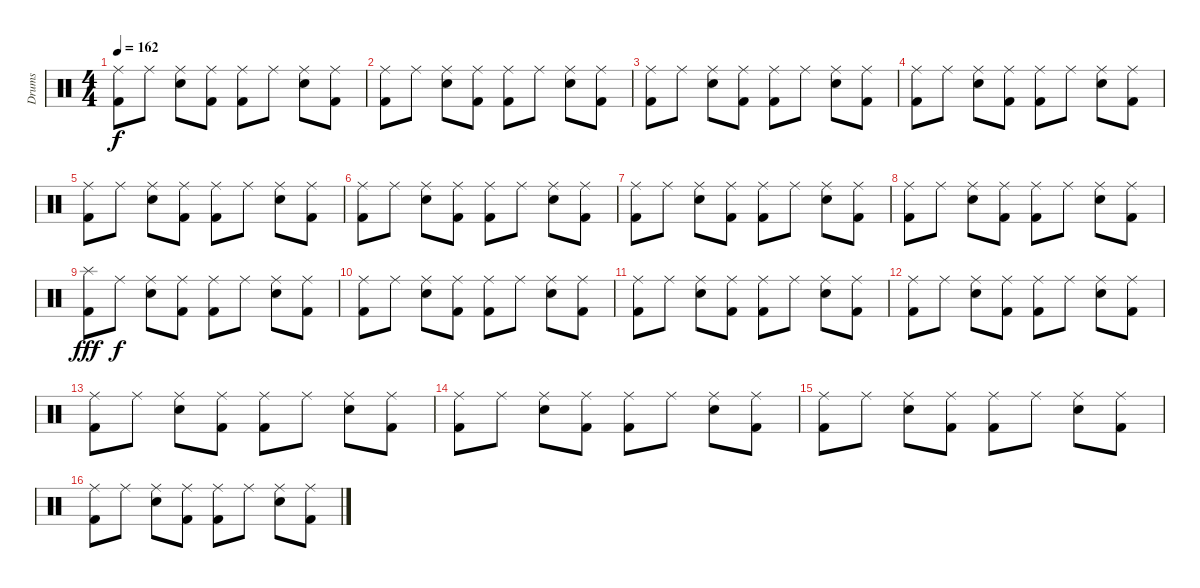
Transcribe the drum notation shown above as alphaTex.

\track ("Drums" "Drums") {instrument percussion}
\staff {score}
\articulation defaults
\ts (4 4)
\tempo 162
\clef neutral
\ks c
("Ride (middle)" "Kick (hit) 2").8{dy f} "Ride (middle)".8 ("Ride (middle)" "Electric Snare (hit)").8 ("Ride (middle)" "Kick (hit) 2").8 ("Ride (middle)" "Kick (hit) 2").8 "Ride (middle)".8 ("Ride (middle)" "Electric Snare (hit)").8 ("Ride (middle)" "Kick (hit) 2").8 |
("Ride (middle)" "Kick (hit) 2").8 "Ride (middle)".8 ("Ride (middle)" "Electric Snare (hit)").8 ("Ride (middle)" "Kick (hit) 2").8 ("Ride (middle)" "Kick (hit) 2").8 "Ride (middle)".8 ("Ride (middle)" "Electric Snare (hit)").8 ("Ride (middle)" "Kick (hit) 2").8 |
("Ride (middle)" "Kick (hit) 2").8 "Ride (middle)".8 ("Ride (middle)" "Electric Snare (hit)").8 ("Ride (middle)" "Kick (hit) 2").8 ("Ride (middle)" "Kick (hit) 2").8 "Ride (middle)".8 ("Ride (middle)" "Electric Snare (hit)").8 ("Ride (middle)" "Kick (hit) 2").8 |
("Ride (middle)" "Kick (hit) 2").8 "Ride (middle)".8 ("Ride (middle)" "Electric Snare (hit)").8 ("Ride (middle)" "Kick (hit) 2").8 ("Ride (middle)" "Kick (hit) 2").8 "Ride (middle)".8 ("Ride (middle)" "Electric Snare (hit)").8 ("Ride (middle)" "Kick (hit) 2").8 |
("Ride (middle)" "Kick (hit) 2").8 "Ride (middle)".8 ("Ride (middle)" "Electric Snare (hit)").8 ("Ride (middle)" "Kick (hit) 2").8 ("Ride (middle)" "Kick (hit) 2").8 "Ride (middle)".8 ("Ride (middle)" "Electric Snare (hit)").8 ("Ride (middle)" "Kick (hit) 2").8 |
("Ride (middle)" "Kick (hit) 2").8 "Ride (middle)".8 ("Ride (middle)" "Electric Snare (hit)").8 ("Ride (middle)" "Kick (hit) 2").8 ("Ride (middle)" "Kick (hit) 2").8 "Ride (middle)".8 ("Ride (middle)" "Electric Snare (hit)").8 ("Ride (middle)" "Kick (hit) 2").8 |
("Ride (middle)" "Kick (hit) 2").8 "Ride (middle)".8 ("Ride (middle)" "Electric Snare (hit)").8 ("Ride (middle)" "Kick (hit) 2").8 ("Ride (middle)" "Kick (hit) 2").8 "Ride (middle)".8 ("Ride (middle)" "Electric Snare (hit)").8 ("Ride (middle)" "Kick (hit) 2").8 |
("Ride (middle)" "Kick (hit) 2").8 "Ride (middle)".8 ("Ride (middle)" "Electric Snare (hit)").8 ("Ride (middle)" "Kick (hit) 2").8 ("Ride (middle)" "Kick (hit) 2").8 "Ride (middle)".8 ("Ride (middle)" "Electric Snare (hit)").8 ("Ride (middle)" "Kick (hit) 2").8 |
("Splash (hit)" "Kick (hit) 2").8{dy fff} "Ride (middle)".8{dy f} ("Ride (middle)" "Electric Snare (hit)").8 ("Ride (middle)" "Kick (hit) 2").8 ("Ride (middle)" "Kick (hit) 2").8 "Ride (middle)".8 ("Ride (middle)" "Electric Snare (hit)").8 ("Ride (middle)" "Kick (hit) 2").8 |
("Ride (middle)" "Kick (hit) 2").8 "Ride (middle)".8 ("Ride (middle)" "Electric Snare (hit)").8 ("Ride (middle)" "Kick (hit) 2").8 ("Ride (middle)" "Kick (hit) 2").8 "Ride (middle)".8 ("Ride (middle)" "Electric Snare (hit)").8 ("Ride (middle)" "Kick (hit) 2").8 |
("Ride (middle)" "Kick (hit) 2").8 "Ride (middle)".8 ("Ride (middle)" "Electric Snare (hit)").8 ("Ride (middle)" "Kick (hit) 2").8 ("Ride (middle)" "Kick (hit) 2").8 "Ride (middle)".8 ("Ride (middle)" "Electric Snare (hit)").8 ("Ride (middle)" "Kick (hit) 2").8 |
("Ride (middle)" "Kick (hit) 2").8 "Ride (middle)".8 ("Ride (middle)" "Electric Snare (hit)").8 ("Ride (middle)" "Kick (hit) 2").8 ("Ride (middle)" "Kick (hit) 2").8 "Ride (middle)".8 ("Ride (middle)" "Electric Snare (hit)").8 ("Ride (middle)" "Kick (hit) 2").8 |
("Ride (middle)" "Kick (hit) 2").8 "Ride (middle)".8 ("Ride (middle)" "Electric Snare (hit)").8 ("Ride (middle)" "Kick (hit) 2").8 ("Ride (middle)" "Kick (hit) 2").8 "Ride (middle)".8 ("Ride (middle)" "Electric Snare (hit)").8 ("Ride (middle)" "Kick (hit) 2").8 |
("Ride (middle)" "Kick (hit) 2").8 "Ride (middle)".8 ("Ride (middle)" "Electric Snare (hit)").8 ("Ride (middle)" "Kick (hit) 2").8 ("Ride (middle)" "Kick (hit) 2").8 "Ride (middle)".8 ("Ride (middle)" "Electric Snare (hit)").8 ("Ride (middle)" "Kick (hit) 2").8 |
("Ride (middle)" "Kick (hit) 2").8 "Ride (middle)".8 ("Ride (middle)" "Electric Snare (hit)").8 ("Ride (middle)" "Kick (hit) 2").8 ("Ride (middle)" "Kick (hit) 2").8 "Ride (middle)".8 ("Ride (middle)" "Electric Snare (hit)").8 ("Ride (middle)" "Kick (hit) 2").8 |
("Ride (middle)" "Kick (hit) 2").8 "Ride (middle)".8 ("Ride (middle)" "Electric Snare (hit)").8 ("Ride (middle)" "Kick (hit) 2").8 ("Ride (middle)" "Kick (hit) 2").8 "Ride (middle)".8 ("Ride (middle)" "Electric Snare (hit)").8 ("Ride (middle)" "Kick (hit) 2").8
